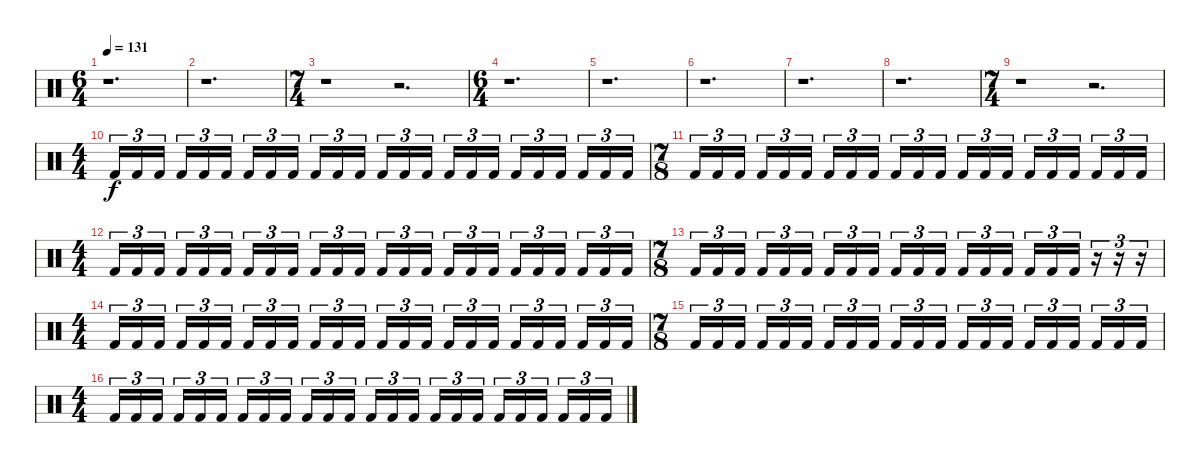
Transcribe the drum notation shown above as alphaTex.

\track "" {instrument percussion}
\staff {score}
\articulation defaults
\ts (6 4)
\tempo 131
\clef neutral
\ks c
r.1{d dy f} |
r.1{d} |
\ts (7 4)
r.1 r.2{d} |
\ts (6 4)
r.1{d} |
r.1{d} |
r.1{d} |
r.1{d} |
r.1{d} |
\ts (7 4)
r.1 r.2{d} |
\ts (4 4)
"Kick (hit) 2".16{tu (3 2)} "Kick (hit) 2".16{tu (3 2)} "Kick (hit) 2".16{tu (3 2) beam splitsecondary} "Kick (hit) 2".16{tu (3 2)} "Kick (hit) 2".16{tu (3 2)} "Kick (hit) 2".16{tu (3 2)} "Kick (hit) 2".16{tu (3 2)} "Kick (hit) 2".16{tu (3 2)} "Kick (hit) 2".16{tu (3 2) beam splitsecondary} "Kick (hit) 2".16{tu (3 2)} "Kick (hit) 2".16{tu (3 2)} "Kick (hit) 2".16{tu (3 2)} "Kick (hit) 2".16{tu (3 2)} "Kick (hit) 2".16{tu (3 2)} "Kick (hit) 2".16{tu (3 2) beam splitsecondary} "Kick (hit) 2".16{tu (3 2)} "Kick (hit) 2".16{tu (3 2)} "Kick (hit) 2".16{tu (3 2)} "Kick (hit) 2".16{tu (3 2)} "Kick (hit) 2".16{tu (3 2)} "Kick (hit) 2".16{tu (3 2) beam splitsecondary} "Kick (hit) 2".16{tu (3 2)} "Kick (hit) 2".16{tu (3 2)} "Kick (hit) 2".16{tu (3 2)} |
\ts (7 8)
"Kick (hit) 2".16{tu (3 2)} "Kick (hit) 2".16{tu (3 2)} "Kick (hit) 2".16{tu (3 2)} "Kick (hit) 2".16{tu (3 2)} "Kick (hit) 2".16{tu (3 2)} "Kick (hit) 2".16{tu (3 2)} "Kick (hit) 2".16{tu (3 2)} "Kick (hit) 2".16{tu (3 2)} "Kick (hit) 2".16{tu (3 2)} "Kick (hit) 2".16{tu (3 2)} "Kick (hit) 2".16{tu (3 2)} "Kick (hit) 2".16{tu (3 2)} "Kick (hit) 2".16{tu (3 2)} "Kick (hit) 2".16{tu (3 2)} "Kick (hit) 2".16{tu (3 2)} "Kick (hit) 2".16{tu (3 2)} "Kick (hit) 2".16{tu (3 2)} "Kick (hit) 2".16{tu (3 2)} "Kick (hit) 2".16{tu (3 2)} "Kick (hit) 2".16{tu (3 2)} "Kick (hit) 2".16{tu (3 2)} |
\ts (4 4)
"Kick (hit) 2".16{tu (3 2)} "Kick (hit) 2".16{tu (3 2)} "Kick (hit) 2".16{tu (3 2) beam splitsecondary} "Kick (hit) 2".16{tu (3 2)} "Kick (hit) 2".16{tu (3 2)} "Kick (hit) 2".16{tu (3 2)} "Kick (hit) 2".16{tu (3 2)} "Kick (hit) 2".16{tu (3 2)} "Kick (hit) 2".16{tu (3 2) beam splitsecondary} "Kick (hit) 2".16{tu (3 2)} "Kick (hit) 2".16{tu (3 2)} "Kick (hit) 2".16{tu (3 2)} "Kick (hit) 2".16{tu (3 2)} "Kick (hit) 2".16{tu (3 2)} "Kick (hit) 2".16{tu (3 2) beam splitsecondary} "Kick (hit) 2".16{tu (3 2)} "Kick (hit) 2".16{tu (3 2)} "Kick (hit) 2".16{tu (3 2)} "Kick (hit) 2".16{tu (3 2)} "Kick (hit) 2".16{tu (3 2)} "Kick (hit) 2".16{tu (3 2) beam splitsecondary} "Kick (hit) 2".16{tu (3 2)} "Kick (hit) 2".16{tu (3 2)} "Kick (hit) 2".16{tu (3 2)} |
\ts (7 8)
"Kick (hit) 2".16{tu (3 2)} "Kick (hit) 2".16{tu (3 2)} "Kick (hit) 2".16{tu (3 2)} "Kick (hit) 2".16{tu (3 2)} "Kick (hit) 2".16{tu (3 2)} "Kick (hit) 2".16{tu (3 2)} "Kick (hit) 2".16{tu (3 2)} "Kick (hit) 2".16{tu (3 2)} "Kick (hit) 2".16{tu (3 2)} "Kick (hit) 2".16{tu (3 2)} "Kick (hit) 2".16{tu (3 2)} "Kick (hit) 2".16{tu (3 2)} "Kick (hit) 2".16{tu (3 2)} "Kick (hit) 2".16{tu (3 2)} "Kick (hit) 2".16{tu (3 2)} "Kick (hit) 2".16{tu (3 2)} "Kick (hit) 2".16{tu (3 2)} "Kick (hit) 2".16{tu (3 2)} r.16{tu (3 2)} r.16{tu (3 2)} r.16{tu (3 2)} |
\ts (4 4)
"Kick (hit) 2".16{tu (3 2)} "Kick (hit) 2".16{tu (3 2)} "Kick (hit) 2".16{tu (3 2) beam splitsecondary} "Kick (hit) 2".16{tu (3 2)} "Kick (hit) 2".16{tu (3 2)} "Kick (hit) 2".16{tu (3 2)} "Kick (hit) 2".16{tu (3 2)} "Kick (hit) 2".16{tu (3 2)} "Kick (hit) 2".16{tu (3 2) beam splitsecondary} "Kick (hit) 2".16{tu (3 2)} "Kick (hit) 2".16{tu (3 2)} "Kick (hit) 2".16{tu (3 2)} "Kick (hit) 2".16{tu (3 2)} "Kick (hit) 2".16{tu (3 2)} "Kick (hit) 2".16{tu (3 2) beam splitsecondary} "Kick (hit) 2".16{tu (3 2)} "Kick (hit) 2".16{tu (3 2)} "Kick (hit) 2".16{tu (3 2)} "Kick (hit) 2".16{tu (3 2)} "Kick (hit) 2".16{tu (3 2)} "Kick (hit) 2".16{tu (3 2) beam splitsecondary} "Kick (hit) 2".16{tu (3 2)} "Kick (hit) 2".16{tu (3 2)} "Kick (hit) 2".16{tu (3 2)} |
\ts (7 8)
"Kick (hit) 2".16{tu (3 2)} "Kick (hit) 2".16{tu (3 2)} "Kick (hit) 2".16{tu (3 2)} "Kick (hit) 2".16{tu (3 2)} "Kick (hit) 2".16{tu (3 2)} "Kick (hit) 2".16{tu (3 2)} "Kick (hit) 2".16{tu (3 2)} "Kick (hit) 2".16{tu (3 2)} "Kick (hit) 2".16{tu (3 2)} "Kick (hit) 2".16{tu (3 2)} "Kick (hit) 2".16{tu (3 2)} "Kick (hit) 2".16{tu (3 2)} "Kick (hit) 2".16{tu (3 2)} "Kick (hit) 2".16{tu (3 2)} "Kick (hit) 2".16{tu (3 2)} "Kick (hit) 2".16{tu (3 2)} "Kick (hit) 2".16{tu (3 2)} "Kick (hit) 2".16{tu (3 2)} "Kick (hit) 2".16{tu (3 2)} "Kick (hit) 2".16{tu (3 2)} "Kick (hit) 2".16{tu (3 2)} |
\ts (4 4)
"Kick (hit) 2".16{tu (3 2)} "Kick (hit) 2".16{tu (3 2)} "Kick (hit) 2".16{tu (3 2) beam splitsecondary} "Kick (hit) 2".16{tu (3 2)} "Kick (hit) 2".16{tu (3 2)} "Kick (hit) 2".16{tu (3 2)} "Kick (hit) 2".16{tu (3 2)} "Kick (hit) 2".16{tu (3 2)} "Kick (hit) 2".16{tu (3 2) beam splitsecondary} "Kick (hit) 2".16{tu (3 2)} "Kick (hit) 2".16{tu (3 2)} "Kick (hit) 2".16{tu (3 2)} "Kick (hit) 2".16{tu (3 2)} "Kick (hit) 2".16{tu (3 2)} "Kick (hit) 2".16{tu (3 2) beam splitsecondary} "Kick (hit) 2".16{tu (3 2)} "Kick (hit) 2".16{tu (3 2)} "Kick (hit) 2".16{tu (3 2)} "Kick (hit) 2".16{tu (3 2)} "Kick (hit) 2".16{tu (3 2)} "Kick (hit) 2".16{tu (3 2) beam splitsecondary} "Kick (hit) 2".16{tu (3 2)} "Kick (hit) 2".16{tu (3 2)} "Kick (hit) 2".16{tu (3 2)}
